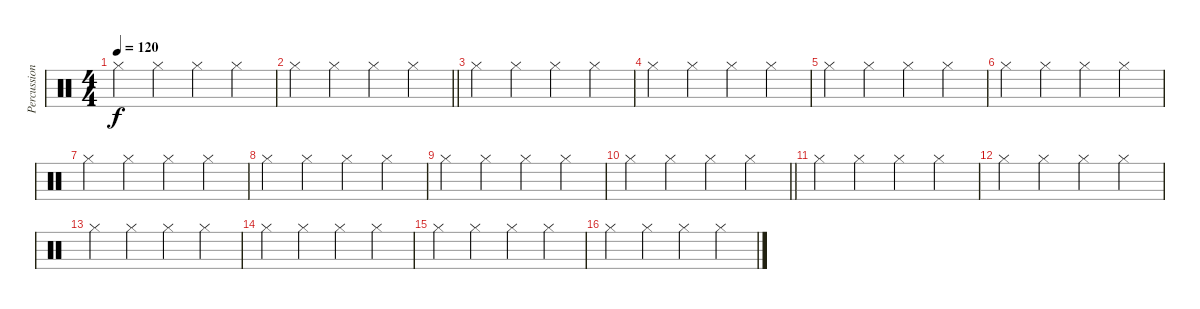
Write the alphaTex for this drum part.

\track ("Percussion" "Percussion") {instrument percussion}
\staff {score}
\articulation defaults
\ts (4 4)
\tempo 120
\clef neutral
\ks c "Hi-Hat (closed)".4{dy f} "Hi-Hat (closed)".4 "Hi-Hat (closed)".4 "Hi-Hat (closed)".4
|
\barLineRight lightlight "Hi-Hat (closed)".4 "Hi-Hat (closed)".4 "Hi-Hat (closed)".4 "Hi-Hat (closed)".4
|
"Hi-Hat (closed)".4 "Hi-Hat (closed)".4 "Hi-Hat (closed)".4 "Hi-Hat (closed)".4 |
"Hi-Hat (closed)".4 "Hi-Hat (closed)".4 "Hi-Hat (closed)".4 "Hi-Hat (closed)".4 |
"Hi-Hat (closed)".4 "Hi-Hat (closed)".4 "Hi-Hat (closed)".4 "Hi-Hat (closed)".4 |
"Hi-Hat (closed)".4 "Hi-Hat (closed)".4 "Hi-Hat (closed)".4 "Hi-Hat (closed)".4 |
"Hi-Hat (closed)".4 "Hi-Hat (closed)".4 "Hi-Hat (closed)".4 "Hi-Hat (closed)".4 |
"Hi-Hat (closed)".4 "Hi-Hat (closed)".4 "Hi-Hat (closed)".4 "Hi-Hat (closed)".4 |
"Hi-Hat (closed)".4 "Hi-Hat (closed)".4 "Hi-Hat (closed)".4 "Hi-Hat (closed)".4 |
\barLineRight lightlight "Hi-Hat (closed)".4 "Hi-Hat (closed)".4 "Hi-Hat (closed)".4 "Hi-Hat (closed)".4
|
"Hi-Hat (closed)".4 "Hi-Hat (closed)".4 "Hi-Hat (closed)".4 "Hi-Hat (closed)".4 |
"Hi-Hat (closed)".4 "Hi-Hat (closed)".4 "Hi-Hat (closed)".4 "Hi-Hat (closed)".4 |
"Hi-Hat (closed)".4 "Hi-Hat (closed)".4 "Hi-Hat (closed)".4 "Hi-Hat (closed)".4 |
"Hi-Hat (closed)".4 "Hi-Hat (closed)".4 "Hi-Hat (closed)".4 "Hi-Hat (closed)".4 |
"Hi-Hat (closed)".4 "Hi-Hat (closed)".4 "Hi-Hat (closed)".4 "Hi-Hat (closed)".4 |
"Hi-Hat (closed)".4 "Hi-Hat (closed)".4 "Hi-Hat (closed)".4 "Hi-Hat (closed)".4
